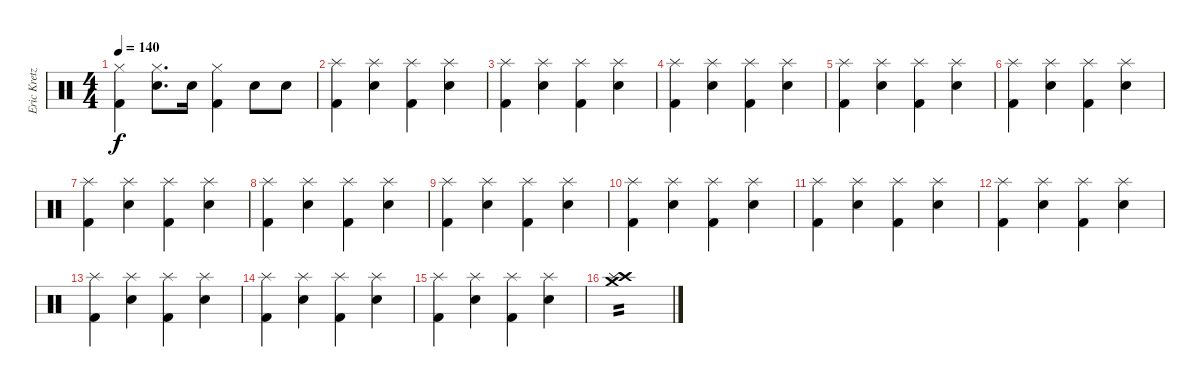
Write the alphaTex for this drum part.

\track ("Eric Kretz" "Eric Kretz") {instrument percussion}
\staff {score}
\articulation defaults
\ts (4 4)
\tempo 140
\clef neutral
\ks c
("Kick (hit) 2" "Hi-Hat (closed)").4{dy f} ("Snare (hit) 2" "Hi-Hat (closed)").8{d} "Snare (hit) 2".16 ("Kick (hit) 2" "Hi-Hat (closed)").4 "Snare (hit) 2".8 "Snare (hit) 2".8 |
("Kick (hit) 2" "Splash (hit)").4 ("Snare (hit) 2" "Splash (hit)").4 ("Kick (hit) 2" "Splash (hit)").4 ("Snare (hit) 2" "Splash (hit)").4 |
("Splash (hit)" "Kick (hit) 2").4 ("Splash (hit)" "Snare (hit) 2").4 ("Splash (hit)" "Kick (hit) 2").4 ("Splash (hit)" "Snare (hit) 2").4 |
("Kick (hit) 2" "Splash (hit)").4 ("Snare (hit) 2" "Splash (hit)").4 ("Kick (hit) 2" "Splash (hit)").4 ("Snare (hit) 2" "Splash (hit)").4 |
("Splash (hit)" "Kick (hit) 2").4 ("Splash (hit)" "Snare (hit) 2").4 ("Splash (hit)" "Kick (hit) 2").4 ("Splash (hit)" "Snare (hit) 2").4 |
("Kick (hit) 2" "Splash (hit)").4 ("Snare (hit) 2" "Splash (hit)").4 ("Kick (hit) 2" "Splash (hit)").4 ("Snare (hit) 2" "Splash (hit)").4 |
("Splash (hit)" "Kick (hit) 2").4 ("Splash (hit)" "Snare (hit) 2").4 ("Splash (hit)" "Kick (hit) 2").4 ("Splash (hit)" "Snare (hit) 2").4 |
("Kick (hit) 2" "Splash (hit)").4 ("Snare (hit) 2" "Splash (hit)").4 ("Kick (hit) 2" "Splash (hit)").4 ("Snare (hit) 2" "Splash (hit)").4 |
("Splash (hit)" "Kick (hit) 2").4 ("Splash (hit)" "Snare (hit) 2").4 ("Splash (hit)" "Kick (hit) 2").4 ("Splash (hit)" "Snare (hit) 2").4 |
("Kick (hit) 2" "Splash (hit)").4 ("Snare (hit) 2" "Splash (hit)").4 ("Kick (hit) 2" "Splash (hit)").4 ("Snare (hit) 2" "Splash (hit)").4 |
("Splash (hit)" "Kick (hit) 2").4 ("Splash (hit)" "Snare (hit) 2").4 ("Splash (hit)" "Kick (hit) 2").4 ("Splash (hit)" "Snare (hit) 2").4 |
("Kick (hit) 2" "Splash (hit)").4 ("Snare (hit) 2" "Splash (hit)").4 ("Kick (hit) 2" "Splash (hit)").4 ("Snare (hit) 2" "Splash (hit)").4 |
("Splash (hit)" "Kick (hit) 2").4 ("Splash (hit)" "Snare (hit) 2").4 ("Splash (hit)" "Kick (hit) 2").4 ("Splash (hit)" "Snare (hit) 2").4 |
("Kick (hit) 2" "Splash (hit)").4 ("Snare (hit) 2" "Splash (hit)").4 ("Kick (hit) 2" "Splash (hit)").4 ("Snare (hit) 2" "Splash (hit)").4 |
("Splash (hit)" "Kick (hit) 2").4 ("Splash (hit)" "Snare (hit) 2").4 ("Splash (hit)" "Kick (hit) 2").4 ("Splash (hit)" "Snare (hit) 2").4 |
("Crash high (hit)" "Crash medium (hit)" "Splash (hit)").1{tp 2}
